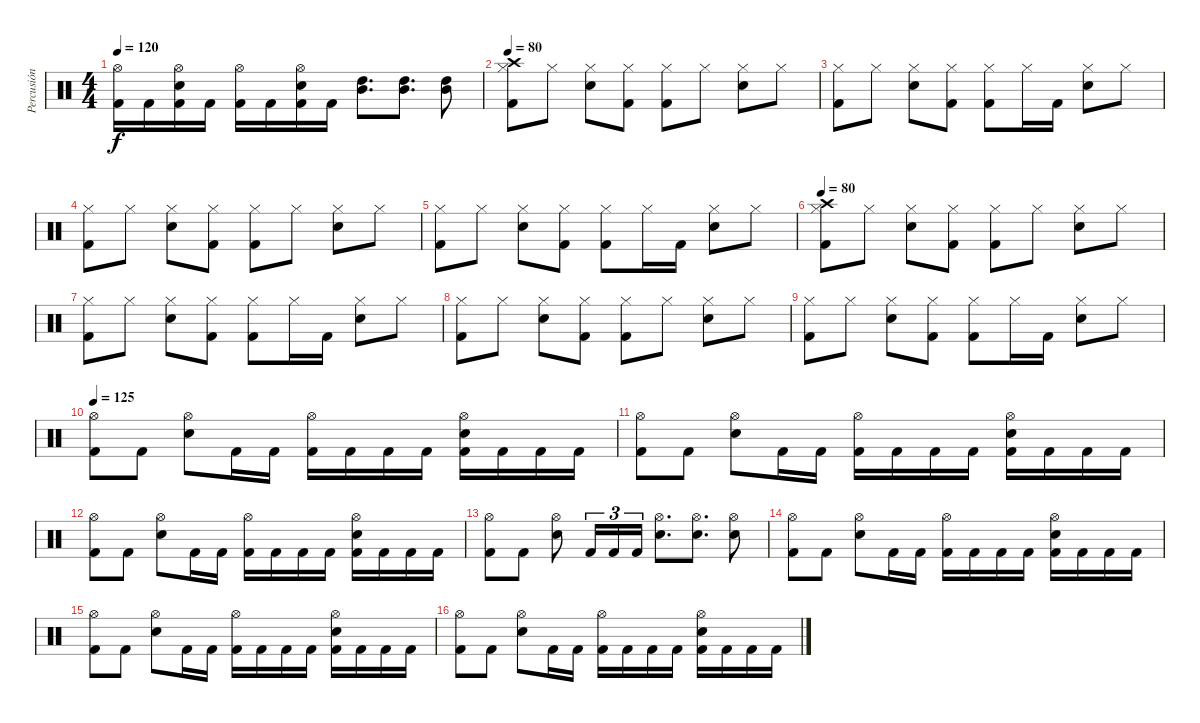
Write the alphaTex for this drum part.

\track ("Percusión" "Percusión") {instrument percussion}
\staff {score}
\articulation defaults
\ts (4 4)
\tempo 120
\clef neutral
\ks c
("Hi-Hat (open)" "Kick (hit) 2").16{dy f} "Kick (hit) 2".16 ("Hi-Hat (open)" "Electric Snare (hit)" "Kick (hit) 2").16 "Kick (hit) 2".16 ("Hi-Hat (open)" "Kick (hit) 2").16 "Kick (hit) 2".16 ("Hi-Hat (open)" "Electric Snare (hit)" "Kick (hit) 2").16 "Kick (hit) 2".16 ("High Tom (hit)" "Mid Tom (hit)").8{d} ("High Tom (hit)" "Mid Tom (hit)").8{d} ("High Tom (hit)" "Mid Tom (hit)").8 |
\tempo 80
("Crash high (hit)" "Hi-Hat (closed)" "Kick (hit) 2").8 "Hi-Hat (closed)".8 ("Hi-Hat (closed)" "Electric Snare (hit)").8 ("Hi-Hat (closed)" "Kick (hit) 2").8 ("Hi-Hat (closed)" "Kick (hit) 2").8 "Hi-Hat (closed)".8 ("Hi-Hat (closed)" "Electric Snare (hit)").8 "Hi-Hat (closed)".8 |
("Hi-Hat (closed)" "Kick (hit) 2").8 "Hi-Hat (closed)".8 ("Hi-Hat (closed)" "Electric Snare (hit)").8 ("Hi-Hat (closed)" "Kick (hit) 2").8 ("Hi-Hat (closed)" "Kick (hit) 2").8 "Hi-Hat (closed)".16 "Kick (hit) 2".16 ("Hi-Hat (closed)" "Electric Snare (hit)").8 "Hi-Hat (closed)".8 |
("Hi-Hat (closed)" "Kick (hit) 2").8 "Hi-Hat (closed)".8 ("Hi-Hat (closed)" "Electric Snare (hit)").8 ("Hi-Hat (closed)" "Kick (hit) 2").8 ("Hi-Hat (closed)" "Kick (hit) 2").8 "Hi-Hat (closed)".8 ("Hi-Hat (closed)" "Electric Snare (hit)").8 "Hi-Hat (closed)".8 |
("Hi-Hat (closed)" "Kick (hit) 2").8 "Hi-Hat (closed)".8 ("Hi-Hat (closed)" "Electric Snare (hit)").8 ("Hi-Hat (closed)" "Kick (hit) 2").8 ("Hi-Hat (closed)" "Kick (hit) 2").8 "Hi-Hat (closed)".16 "Kick (hit) 2".16 ("Hi-Hat (closed)" "Electric Snare (hit)").8 "Hi-Hat (closed)".8 |
\tempo 80
("Crash high (hit)" "Hi-Hat (closed)" "Kick (hit) 2").8 "Hi-Hat (closed)".8 ("Hi-Hat (closed)" "Electric Snare (hit)").8 ("Hi-Hat (closed)" "Kick (hit) 2").8 ("Hi-Hat (closed)" "Kick (hit) 2").8 "Hi-Hat (closed)".8 ("Hi-Hat (closed)" "Electric Snare (hit)").8 "Hi-Hat (closed)".8 |
("Hi-Hat (closed)" "Kick (hit) 2").8 "Hi-Hat (closed)".8 ("Hi-Hat (closed)" "Electric Snare (hit)").8 ("Hi-Hat (closed)" "Kick (hit) 2").8 ("Hi-Hat (closed)" "Kick (hit) 2").8 "Hi-Hat (closed)".16 "Kick (hit) 2".16 ("Hi-Hat (closed)" "Electric Snare (hit)").8 "Hi-Hat (closed)".8 |
("Hi-Hat (closed)" "Kick (hit) 2").8 "Hi-Hat (closed)".8 ("Hi-Hat (closed)" "Electric Snare (hit)").8 ("Hi-Hat (closed)" "Kick (hit) 2").8 ("Hi-Hat (closed)" "Kick (hit) 2").8 "Hi-Hat (closed)".8 ("Hi-Hat (closed)" "Electric Snare (hit)").8 "Hi-Hat (closed)".8 |
("Hi-Hat (closed)" "Kick (hit) 2").8 "Hi-Hat (closed)".8 ("Hi-Hat (closed)" "Electric Snare (hit)").8 ("Hi-Hat (closed)" "Kick (hit) 2").8 ("Hi-Hat (closed)" "Kick (hit) 2").8 "Hi-Hat (closed)".16 "Kick (hit) 2".16 ("Hi-Hat (closed)" "Electric Snare (hit)").8 "Hi-Hat (closed)".8 |
\tempo 125
("Hi-Hat (open)" "Kick (hit) 2").8 "Kick (hit) 2".8 ("Hi-Hat (open)" "Electric Snare (hit)").8 "Kick (hit) 2".16 "Kick (hit) 2".16 ("Hi-Hat (open)" "Kick (hit) 2").16 "Kick (hit) 2".16 "Kick (hit) 2".16 "Kick (hit) 2".16 ("Hi-Hat (open)" "Electric Snare (hit)" "Kick (hit) 2").16 "Kick (hit) 2".16 "Kick (hit) 2".16 "Kick (hit) 2".16 |
("Hi-Hat (open)" "Kick (hit) 2").8 "Kick (hit) 2".8 ("Hi-Hat (open)" "Electric Snare (hit)").8 "Kick (hit) 2".16 "Kick (hit) 2".16 ("Hi-Hat (open)" "Kick (hit) 2").16 "Kick (hit) 2".16 "Kick (hit) 2".16 "Kick (hit) 2".16 ("Hi-Hat (open)" "Electric Snare (hit)" "Kick (hit) 2").16 "Kick (hit) 2".16 "Kick (hit) 2".16 "Kick (hit) 2".16 |
("Hi-Hat (open)" "Kick (hit) 2").8 "Kick (hit) 2".8 ("Hi-Hat (open)" "Electric Snare (hit)").8 "Kick (hit) 2".16 "Kick (hit) 2".16 ("Hi-Hat (open)" "Kick (hit) 2").16 "Kick (hit) 2".16 "Kick (hit) 2".16 "Kick (hit) 2".16 ("Hi-Hat (open)" "Electric Snare (hit)" "Kick (hit) 2").16 "Kick (hit) 2".16 "Kick (hit) 2".16 "Kick (hit) 2".16 |
("Hi-Hat (open)" "Kick (hit) 2").8 "Kick (hit) 2".8 ("Hi-Hat (open)" "Electric Snare (hit)").8 "Kick (hit) 2".16{tu (3 2)} "Kick (hit) 2".16{tu (3 2)} "Kick (hit) 2".16{tu (3 2)} ("Hi-Hat (open)" "Electric Snare (hit)").8{d} ("Hi-Hat (open)" "Electric Snare (hit)").8{d} ("Hi-Hat (open)" "Electric Snare (hit)").8 |
("Hi-Hat (open)" "Kick (hit) 2").8 "Kick (hit) 2".8 ("Hi-Hat (open)" "Electric Snare (hit)").8 "Kick (hit) 2".16 "Kick (hit) 2".16 ("Hi-Hat (open)" "Kick (hit) 2").16 "Kick (hit) 2".16 "Kick (hit) 2".16 "Kick (hit) 2".16 ("Hi-Hat (open)" "Electric Snare (hit)" "Kick (hit) 2").16 "Kick (hit) 2".16 "Kick (hit) 2".16 "Kick (hit) 2".16 |
("Hi-Hat (open)" "Kick (hit) 2").8 "Kick (hit) 2".8 ("Hi-Hat (open)" "Electric Snare (hit)").8 "Kick (hit) 2".16 "Kick (hit) 2".16 ("Hi-Hat (open)" "Kick (hit) 2").16 "Kick (hit) 2".16 "Kick (hit) 2".16 "Kick (hit) 2".16 ("Hi-Hat (open)" "Electric Snare (hit)" "Kick (hit) 2").16 "Kick (hit) 2".16 "Kick (hit) 2".16 "Kick (hit) 2".16 |
("Hi-Hat (open)" "Kick (hit) 2").8 "Kick (hit) 2".8 ("Hi-Hat (open)" "Electric Snare (hit)").8 "Kick (hit) 2".16 "Kick (hit) 2".16 ("Hi-Hat (open)" "Kick (hit) 2").16 "Kick (hit) 2".16 "Kick (hit) 2".16 "Kick (hit) 2".16 ("Hi-Hat (open)" "Electric Snare (hit)" "Kick (hit) 2").16 "Kick (hit) 2".16 "Kick (hit) 2".16 "Kick (hit) 2".16
